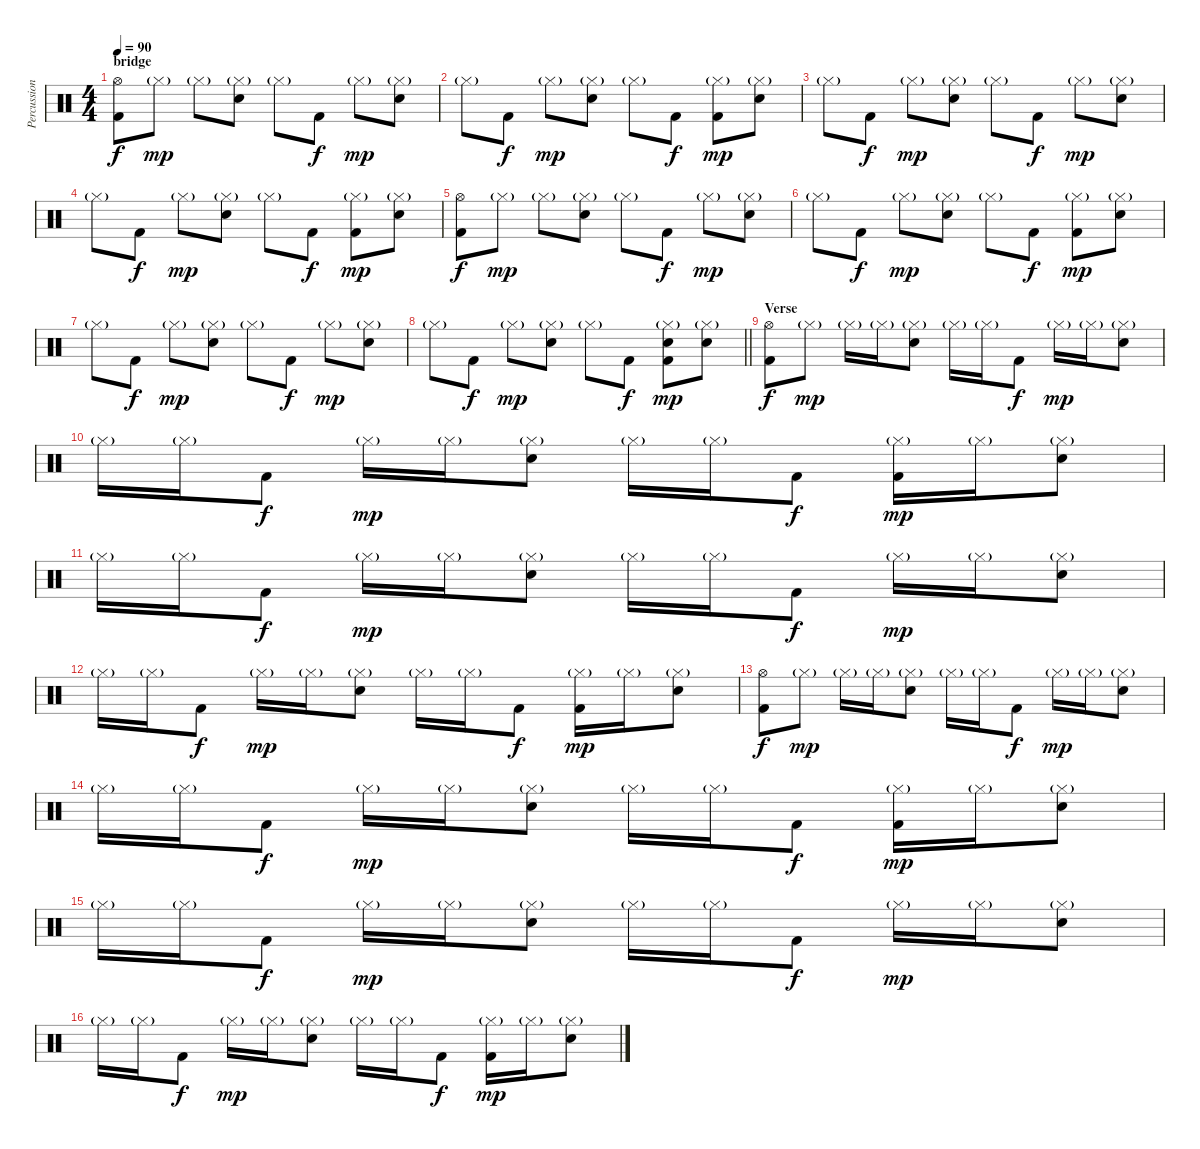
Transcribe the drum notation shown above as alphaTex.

\track ("Percussion" "Percussion") {instrument percussion}
\staff {score}
\articulation defaults
\ts (4 4)
\section ("" "bridge")
\tempo 90
\clef neutral
\ks c
("Hi-Hat (open)" "Kick (hit) 2").8{dy f} "Hi-Hat (closed)"{g}.8{dy mp} "Hi-Hat (closed)"{g}.8 ("Hi-Hat (closed)"{g} "Electric Snare (hit)").8 "Hi-Hat (closed)"{g}.8 "Kick (hit) 2".8{dy f} "Hi-Hat (closed)"{g}.8{dy mp} ("Hi-Hat (closed)"{g} "Electric Snare (hit)").8 |
"Hi-Hat (closed)"{g}.8 "Kick (hit) 2".8{dy f} "Hi-Hat (closed)"{g}.8{dy mp} ("Hi-Hat (closed)"{g} "Electric Snare (hit)").8 "Hi-Hat (closed)"{g}.8 "Kick (hit) 2".8{dy f} ("Hi-Hat (closed)"{g} "Kick (hit) 2").8{dy mp} ("Hi-Hat (closed)"{g} "Electric Snare (hit)").8 |
"Hi-Hat (closed)"{g}.8 "Kick (hit) 2".8{dy f} "Hi-Hat (closed)"{g}.8{dy mp} ("Hi-Hat (closed)"{g} "Electric Snare (hit)").8 "Hi-Hat (closed)"{g}.8 "Kick (hit) 2".8{dy f} "Hi-Hat (closed)"{g}.8{dy mp} ("Hi-Hat (closed)"{g} "Electric Snare (hit)").8 |
"Hi-Hat (closed)"{g}.8 "Kick (hit) 2".8{dy f} "Hi-Hat (closed)"{g}.8{dy mp} ("Hi-Hat (closed)"{g} "Electric Snare (hit)").8 "Hi-Hat (closed)"{g}.8 "Kick (hit) 2".8{dy f} ("Hi-Hat (closed)"{g} "Kick (hit) 2").8{dy mp} ("Hi-Hat (closed)"{g} "Electric Snare (hit)").8 |
("Hi-Hat (open)" "Kick (hit) 2").8{dy f} "Hi-Hat (closed)"{g}.8{dy mp} "Hi-Hat (closed)"{g}.8 ("Hi-Hat (closed)"{g} "Electric Snare (hit)").8 "Hi-Hat (closed)"{g}.8 "Kick (hit) 2".8{dy f} "Hi-Hat (closed)"{g}.8{dy mp} ("Hi-Hat (closed)"{g} "Electric Snare (hit)").8 |
"Hi-Hat (closed)"{g}.8 "Kick (hit) 2".8{dy f} "Hi-Hat (closed)"{g}.8{dy mp} ("Hi-Hat (closed)"{g} "Electric Snare (hit)").8 "Hi-Hat (closed)"{g}.8 "Kick (hit) 2".8{dy f} ("Hi-Hat (closed)"{g} "Kick (hit) 2").8{dy mp} ("Hi-Hat (closed)"{g} "Electric Snare (hit)").8 |
"Hi-Hat (closed)"{g}.8 "Kick (hit) 2".8{dy f} "Hi-Hat (closed)"{g}.8{dy mp} ("Hi-Hat (closed)"{g} "Electric Snare (hit)").8 "Hi-Hat (closed)"{g}.8 "Kick (hit) 2".8{dy f} "Hi-Hat (closed)"{g}.8{dy mp} ("Hi-Hat (closed)"{g} "Electric Snare (hit)").8 |
\barLineRight lightlight "Hi-Hat (closed)"{g}.8 "Kick (hit) 2".8{dy f} "Hi-Hat (closed)"{g}.8{dy mp}
("Hi-Hat (closed)"{g} "Electric Snare (hit)").8 "Hi-Hat (closed)"{g}.8 "Kick (hit) 2".8{dy f} ("Hi-Hat (closed)"{g} "Electric Snare (hit)" "Kick (hit) 2").8{dy mp} ("Hi-Hat (closed)"{g} "Electric Snare (hit)").8 |
\section ("" "Verse")
("Hi-Hat (open)" "Kick (hit) 2").8{dy f} "Hi-Hat (closed)"{g}.8{dy mp} "Hi-Hat (closed)"{g}.16 "Hi-Hat (closed)"{g}.16 ("Hi-Hat (closed)"{g} "Electric Snare (hit)").8 "Hi-Hat (closed)"{g}.16 "Hi-Hat (closed)"{g}.16 "Kick (hit) 2".8{dy f} "Hi-Hat (closed)"{g}.16{dy mp} "Hi-Hat (closed)"{g}.16 ("Hi-Hat (closed)"{g} "Electric Snare (hit)").8 |
"Hi-Hat (closed)"{g}.16 "Hi-Hat (closed)"{g}.16 "Kick (hit) 2".8{dy f} "Hi-Hat (closed)"{g}.16{dy mp} "Hi-Hat (closed)"{g}.16 ("Hi-Hat (closed)"{g} "Electric Snare (hit)").8 "Hi-Hat (closed)"{g}.16 "Hi-Hat (closed)"{g}.16 "Kick (hit) 2".8{dy f} ("Hi-Hat (closed)"{g} "Kick (hit) 2").16{dy mp} "Hi-Hat (closed)"{g}.16 ("Hi-Hat (closed)"{g} "Electric Snare (hit)").8 |
"Hi-Hat (closed)"{g}.16 "Hi-Hat (closed)"{g}.16 "Kick (hit) 2".8{dy f} "Hi-Hat (closed)"{g}.16{dy mp} "Hi-Hat (closed)"{g}.16 ("Hi-Hat (closed)"{g} "Electric Snare (hit)").8 "Hi-Hat (closed)"{g}.16 "Hi-Hat (closed)"{g}.16 "Kick (hit) 2".8{dy f} "Hi-Hat (closed)"{g}.16{dy mp} "Hi-Hat (closed)"{g}.16 ("Hi-Hat (closed)"{g} "Electric Snare (hit)").8 |
"Hi-Hat (closed)"{g}.16 "Hi-Hat (closed)"{g}.16 "Kick (hit) 2".8{dy f} "Hi-Hat (closed)"{g}.16{dy mp} "Hi-Hat (closed)"{g}.16 ("Hi-Hat (closed)"{g} "Electric Snare (hit)").8 "Hi-Hat (closed)"{g}.16 "Hi-Hat (closed)"{g}.16 "Kick (hit) 2".8{dy f} ("Hi-Hat (closed)"{g} "Kick (hit) 2").16{dy mp} "Hi-Hat (closed)"{g}.16 ("Hi-Hat (closed)"{g} "Electric Snare (hit)").8 |
("Hi-Hat (open)" "Kick (hit) 2").8{dy f} "Hi-Hat (closed)"{g}.8{dy mp} "Hi-Hat (closed)"{g}.16 "Hi-Hat (closed)"{g}.16 ("Hi-Hat (closed)"{g} "Electric Snare (hit)").8 "Hi-Hat (closed)"{g}.16 "Hi-Hat (closed)"{g}.16 "Kick (hit) 2".8{dy f} "Hi-Hat (closed)"{g}.16{dy mp} "Hi-Hat (closed)"{g}.16 ("Hi-Hat (closed)"{g} "Electric Snare (hit)").8 |
"Hi-Hat (closed)"{g}.16 "Hi-Hat (closed)"{g}.16 "Kick (hit) 2".8{dy f} "Hi-Hat (closed)"{g}.16{dy mp} "Hi-Hat (closed)"{g}.16 ("Hi-Hat (closed)"{g} "Electric Snare (hit)").8 "Hi-Hat (closed)"{g}.16 "Hi-Hat (closed)"{g}.16 "Kick (hit) 2".8{dy f} ("Hi-Hat (closed)"{g} "Kick (hit) 2").16{dy mp} "Hi-Hat (closed)"{g}.16 ("Hi-Hat (closed)"{g} "Electric Snare (hit)").8 |
"Hi-Hat (closed)"{g}.16 "Hi-Hat (closed)"{g}.16 "Kick (hit) 2".8{dy f} "Hi-Hat (closed)"{g}.16{dy mp} "Hi-Hat (closed)"{g}.16 ("Hi-Hat (closed)"{g} "Electric Snare (hit)").8 "Hi-Hat (closed)"{g}.16 "Hi-Hat (closed)"{g}.16 "Kick (hit) 2".8{dy f} "Hi-Hat (closed)"{g}.16{dy mp} "Hi-Hat (closed)"{g}.16 ("Hi-Hat (closed)"{g} "Electric Snare (hit)").8 |
"Hi-Hat (closed)"{g}.16 "Hi-Hat (closed)"{g}.16 "Kick (hit) 2".8{dy f} "Hi-Hat (closed)"{g}.16{dy mp} "Hi-Hat (closed)"{g}.16 ("Hi-Hat (closed)"{g} "Electric Snare (hit)").8 "Hi-Hat (closed)"{g}.16 "Hi-Hat (closed)"{g}.16 "Kick (hit) 2".8{dy f} ("Hi-Hat (closed)"{g} "Kick (hit) 2").16{dy mp} "Hi-Hat (closed)"{g}.16 ("Hi-Hat (closed)"{g} "Electric Snare (hit)").8
